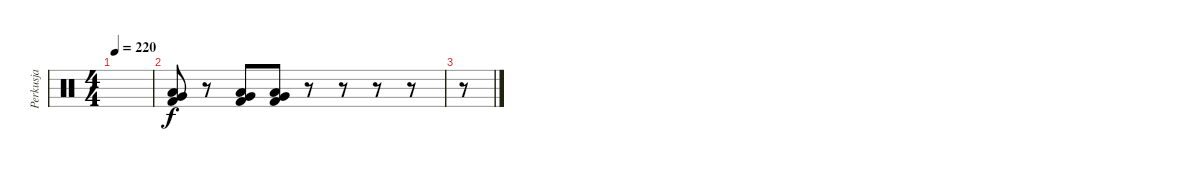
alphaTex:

\track ("Perkusja" "Perkusja") {instrument percussion}
\staff {score}
\articulation defaults
\ts (4 4)
\tempo 220
\clef neutral
\ks c
|
("Very Low Tom (hit)" "Low Floor Tom (hit)" "Kick (hit) 2").8 r.8 ("Very Low Tom (hit)" "Low Floor Tom (hit)" "Kick (hit) 2").8 ("Very Low Tom (hit)" "Low Floor Tom (hit)" "Kick (hit) 2").8 r.8 r.8 r.8 r.8 |
r.8
